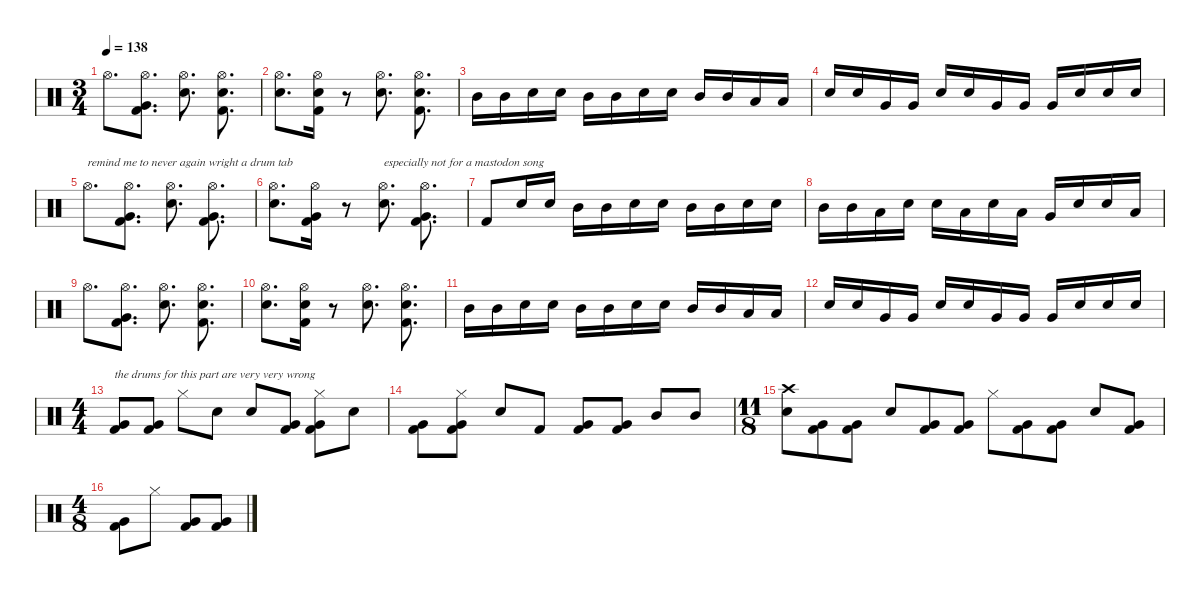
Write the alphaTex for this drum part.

\defaultSystemsLayout 4
\hideDynamics
\bracketExtendMode nobrackets
\singleTrackTrackNamePolicy hidden
\multiTrackTrackNamePolicy hidden
\otherSystemsTrackNameOrientation horizontal
\track ("Drums" "drm.") {instrument percussion}
\staff {score}
\articulation defaults
\ts (3 4)
\tempo 138
\clef neutral
\ks c "Hi-Hat (open)".8{d dy mp beam Down}
("Hi-Hat (open)" "Very Low Tom (hit)" "Kick (hit) 2").8{d beam Down} ("Hi-Hat (open)" "Snare (hit) 2").8{d beam Down} ("Hi-Hat (open)" "Snare (hit) 2" "Kick (hit) 2").8{d beam Down} |
("Hi-Hat (open)" "Snare (hit) 2").8{d beam Down} ("Hi-Hat (open)" "Snare (hit) 2" "Kick (hit) 2").16{beam Down} r.8{beam Down} ("Hi-Hat (open)" "Snare (hit) 2").8{d beam Down} ("Hi-Hat (open)" "Snare (hit) 2" "Kick (hit) 2").8{d beam Down} |
"Mid Tom (hit)".16{dy f beam Down} "Mid Tom (hit)".16{beam Down} "Snare (hit) 2".16{beam Down} "Snare (hit) 2".16{beam Down} "Mid Tom (hit)".16{beam Down} "Mid Tom (hit)".16{beam Down} "Snare (hit) 2".16{beam Down} "Snare (hit) 2".16{beam Down} "Mid Tom (hit)".16{beam Up} "Mid Tom (hit)".16{beam Up} "Low Tom (hit)".16{beam Up} "Low Tom (hit)".16{beam Up} |
"Snare (hit) 2".16{beam Up} "Snare (hit) 2".16{beam Up} "Very Low Tom (hit)".16{beam Up} "Very Low Tom (hit)".16{beam Up} "Snare (hit) 2".16{beam Up} "Snare (hit) 2".16{beam Up} "Very Low Tom (hit)".16{beam Up} "Very Low Tom (hit)".16{beam Up} "Very Low Tom (hit)".16{beam Up} "Snare (hit) 2".16{beam Up} "Snare (hit) 2".16{beam Up} "Snare (hit) 2".16{beam Up} |
"Hi-Hat (open)".8{d txt "remind me to never again wright a drum tab" dy mp beam Down} ("Hi-Hat (open)" "Very Low Tom (hit)" "Kick (hit) 2").8{d beam Down} ("Hi-Hat (open)" "Snare (hit) 2").8{d beam Down} ("Hi-Hat (open)" "Very Low Tom (hit)" "Kick (hit) 2").8{d beam Down} |
("Hi-Hat (open)" "Snare (hit) 2").8{d beam Down} ("Hi-Hat (open)" "Very Low Tom (hit)" "Kick (hit) 2").16{beam Down} r.8{beam Down} ("Hi-Hat (open)" "Snare (hit) 2").8{d txt "especially not for a mastodon song" beam Down} ("Hi-Hat (open)" "Very Low Tom (hit)" "Kick (hit) 2").8{d beam Down} |
"Kick (hit) 2".8{beam Up} "Snare (hit) 2".16{dy ff beam Up} "Snare (hit) 2".16{beam Up} "Mid Tom (hit)".16{beam Down} "Mid Tom (hit)".16{beam Down} "Snare (hit) 2".16{beam Down} "Snare (hit) 2".16{beam Down} "Mid Tom (hit)".16{beam Down} "Mid Tom (hit)".16{beam Down} "Snare (hit) 2".16{beam Down} "Snare (hit) 2".16{beam Down} |
"Mid Tom (hit)".16{beam Down} "Mid Tom (hit)".16{beam Down} "Low Tom (hit)".16{beam Down} "Snare (hit) 2".16{beam Down} "Snare (hit) 2".16{beam Down} "Low Tom (hit)".16{beam Down} "Snare (hit) 2".16{beam Down} "Low Tom (hit)".16{beam Down} "Very Low Tom (hit)".16{beam Up} "Snare (hit) 2".16{beam Up} "Snare (hit) 2".16{beam Up} "Low Tom (hit)".16{beam Up} |
"Hi-Hat (open)".8{d dy mp beam Down} ("Hi-Hat (open)" "Very Low Tom (hit)" "Kick (hit) 2").8{d beam Down} ("Hi-Hat (open)" "Snare (hit) 2").8{d beam Down} ("Hi-Hat (open)" "Snare (hit) 2" "Kick (hit) 2").8{d beam Down} |
("Hi-Hat (open)" "Snare (hit) 2").8{d beam Down} ("Hi-Hat (open)" "Snare (hit) 2" "Kick (hit) 2").16{beam Down} r.8{beam Down} ("Hi-Hat (open)" "Snare (hit) 2").8{d beam Down} ("Hi-Hat (open)" "Snare (hit) 2" "Kick (hit) 2").8{d beam Down} |
"Mid Tom (hit)".16{dy f beam Down} "Mid Tom (hit)".16{beam Down} "Snare (hit) 2".16{beam Down} "Snare (hit) 2".16{beam Down} "Mid Tom (hit)".16{beam Down} "Mid Tom (hit)".16{beam Down} "Snare (hit) 2".16{beam Down} "Snare (hit) 2".16{beam Down} "Mid Tom (hit)".16{beam Up} "Mid Tom (hit)".16{beam Up} "Low Tom (hit)".16{beam Up} "Low Tom (hit)".16{beam Up} |
"Snare (hit) 2".16{beam Up} "Snare (hit) 2".16{beam Up} "Very Low Tom (hit)".16{beam Up} "Very Low Tom (hit)".16{beam Up} "Snare (hit) 2".16{beam Up} "Snare (hit) 2".16{beam Up} "Very Low Tom (hit)".16{beam Up} "Very Low Tom (hit)".16{beam Up} "Very Low Tom (hit)".16{beam Up} "Snare (hit) 2".16{beam Up} "Snare (hit) 2".16{beam Up} "Snare (hit) 2".16{beam Up} |
\ts (4 4)
\beaming (8 2 2 2 2)
("Very Low Tom (hit)" "Kick (hit) 2").8{txt "the drums for this part are very very wrong" beam Up} ("Very Low Tom (hit)" "Kick (hit) 2").8{beam Up} "Hi-Hat (closed)".8{beam Down} "Snare (hit) 2".8{beam Down} "Snare (hit) 2".8{beam Up} ("Very Low Tom (hit)" "Kick (hit) 2").8{beam Up} ("Hi-Hat (closed)" "Very Low Tom (hit)" "Kick (hit) 2").8{beam Down} "Snare (hit) 2".8{beam Down} |
("Very Low Tom (hit)" "Kick (hit) 2").8{beam Down} ("Hi-Hat (closed)" "Very Low Tom (hit)" "Kick (hit) 2").8{beam Down} "Snare (hit) 2".8{beam Up} "Kick (hit) 2".8{beam Up} ("Very Low Tom (hit)" "Kick (hit) 2").8{beam Up} ("Very Low Tom (hit)" "Kick (hit) 2").8{beam Up} "Mid Tom (hit)".8{beam Up} "Mid Tom (hit)".8{beam Up} |
\ts (11 8)
\beaming (8 3 3 3 2)
("Crash high (hit)" "Snare (hit) 2").8{beam Down} ("Very Low Tom (hit)" "Kick (hit) 2").8{beam Down} ("Very Low Tom (hit)" "Kick (hit) 2").8{beam Down} "Snare (hit) 2".8{beam Up} ("Very Low Tom (hit)" "Kick (hit) 2").8{beam Up} ("Very Low Tom (hit)" "Kick (hit) 2").8{beam Up} "Hi-Hat (closed)".8{beam Down} ("Very Low Tom (hit)" "Kick (hit) 2").8{beam Down} ("Very Low Tom (hit)" "Kick (hit) 2").8{beam Down} "Snare (hit) 2".8{beam Up} ("Very Low Tom (hit)" "Kick (hit) 2").8{beam Up} |
\ts (4 8)
\beaming (8 2 2)
("Very Low Tom (hit)" "Kick (hit) 2").8{beam Down} "Hi-Hat (closed)".8{beam Down} ("Very Low Tom (hit)" "Kick (hit) 2").8{beam Up} ("Very Low Tom (hit)" "Kick (hit) 2").8{beam Up}
